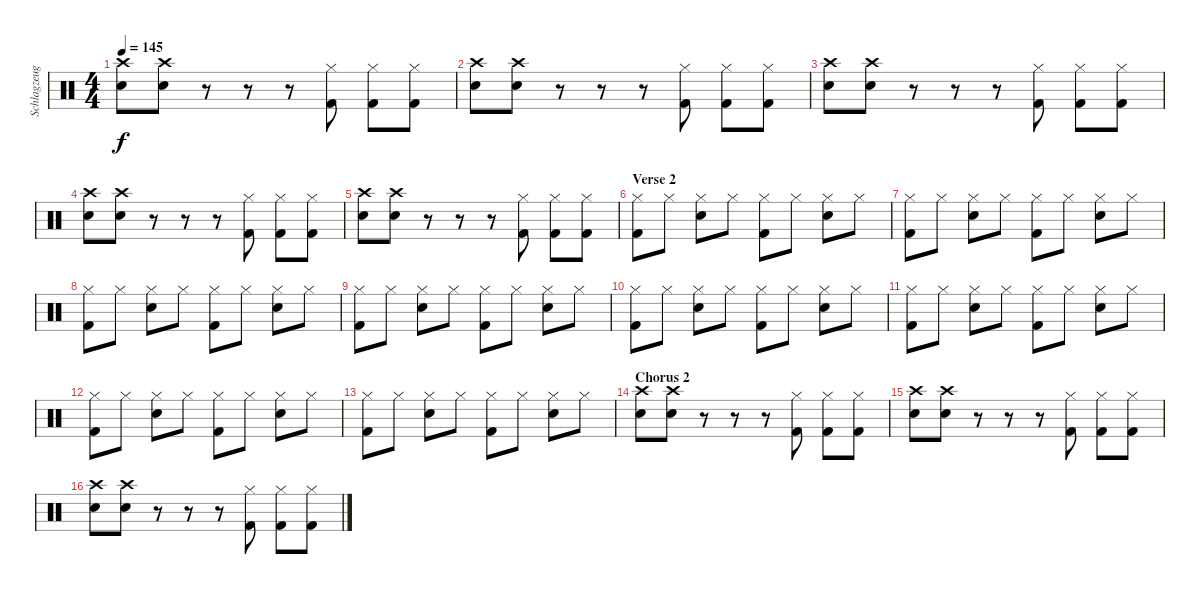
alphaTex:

\track ("Schlagzeug" "Schlagzeug") {instrument percussion}
\staff {score}
\articulation defaults
\ts (4 4)
\tempo 145
\clef neutral
\ks c
("Snare (hit) 2" "Crash high (hit)").8{dy f} ("Snare (hit) 2" "Crash high (hit)").8 r.8 r.8 r.8 ("Kick (hit) 2" "Hi-Hat (closed)").8 ("Kick (hit) 2" "Hi-Hat (closed)").8 ("Kick (hit) 2" "Hi-Hat (closed)").8 |
("Snare (hit) 2" "Crash high (hit)").8 ("Snare (hit) 2" "Crash high (hit)").8 r.8 r.8 r.8 ("Kick (hit) 2" "Hi-Hat (closed)").8 ("Kick (hit) 2" "Hi-Hat (closed)").8 ("Kick (hit) 2" "Hi-Hat (closed)").8 |
("Snare (hit) 2" "Crash high (hit)").8 ("Snare (hit) 2" "Crash high (hit)").8 r.8 r.8 r.8 ("Kick (hit) 2" "Hi-Hat (closed)").8 ("Kick (hit) 2" "Hi-Hat (closed)").8 ("Kick (hit) 2" "Hi-Hat (closed)").8 |
("Snare (hit) 2" "Crash high (hit)").8 ("Snare (hit) 2" "Crash high (hit)").8 r.8 r.8 r.8 ("Kick (hit) 2" "Hi-Hat (closed)").8 ("Kick (hit) 2" "Hi-Hat (closed)").8 ("Kick (hit) 2" "Hi-Hat (closed)").8 |
("Snare (hit) 2" "Crash high (hit)").8 ("Snare (hit) 2" "Crash high (hit)").8 r.8 r.8 r.8 ("Kick (hit) 2" "Hi-Hat (closed)").8 ("Kick (hit) 2" "Hi-Hat (closed)").8 ("Kick (hit) 2" "Hi-Hat (closed)").8 |
\section ("" "Verse 2")
("Kick (hit) 2" "Hi-Hat (closed)").8 "Hi-Hat (closed)".8 ("Snare (hit) 2" "Hi-Hat (closed)").8 "Hi-Hat (closed)".8 ("Kick (hit) 2" "Hi-Hat (closed)").8 "Hi-Hat (closed)".8 ("Snare (hit) 2" "Hi-Hat (closed)").8 "Hi-Hat (closed)".8 |
("Kick (hit) 2" "Hi-Hat (closed)").8 "Hi-Hat (closed)".8 ("Snare (hit) 2" "Hi-Hat (closed)").8 "Hi-Hat (closed)".8 ("Kick (hit) 2" "Hi-Hat (closed)").8 "Hi-Hat (closed)".8 ("Snare (hit) 2" "Hi-Hat (closed)").8 "Hi-Hat (closed)".8 |
("Kick (hit) 2" "Hi-Hat (closed)").8 "Hi-Hat (closed)".8 ("Snare (hit) 2" "Hi-Hat (closed)").8 "Hi-Hat (closed)".8 ("Kick (hit) 2" "Hi-Hat (closed)").8 "Hi-Hat (closed)".8 ("Snare (hit) 2" "Hi-Hat (closed)").8 "Hi-Hat (closed)".8 |
("Kick (hit) 2" "Hi-Hat (closed)").8 "Hi-Hat (closed)".8 ("Snare (hit) 2" "Hi-Hat (closed)").8 "Hi-Hat (closed)".8 ("Kick (hit) 2" "Hi-Hat (closed)").8 "Hi-Hat (closed)".8 ("Snare (hit) 2" "Hi-Hat (closed)").8 "Hi-Hat (closed)".8 |
("Kick (hit) 2" "Hi-Hat (closed)").8 "Hi-Hat (closed)".8 ("Snare (hit) 2" "Hi-Hat (closed)").8 "Hi-Hat (closed)".8 ("Kick (hit) 2" "Hi-Hat (closed)").8 "Hi-Hat (closed)".8 ("Snare (hit) 2" "Hi-Hat (closed)").8 "Hi-Hat (closed)".8 |
("Kick (hit) 2" "Hi-Hat (closed)").8 "Hi-Hat (closed)".8 ("Snare (hit) 2" "Hi-Hat (closed)").8 "Hi-Hat (closed)".8 ("Kick (hit) 2" "Hi-Hat (closed)").8 "Hi-Hat (closed)".8 ("Snare (hit) 2" "Hi-Hat (closed)").8 "Hi-Hat (closed)".8 |
("Kick (hit) 2" "Hi-Hat (closed)").8 "Hi-Hat (closed)".8 ("Snare (hit) 2" "Hi-Hat (closed)").8 "Hi-Hat (closed)".8 ("Kick (hit) 2" "Hi-Hat (closed)").8 "Hi-Hat (closed)".8 ("Snare (hit) 2" "Hi-Hat (closed)").8 "Hi-Hat (closed)".8 |
("Kick (hit) 2" "Hi-Hat (closed)").8 "Hi-Hat (closed)".8 ("Snare (hit) 2" "Hi-Hat (closed)").8 "Hi-Hat (closed)".8 ("Kick (hit) 2" "Hi-Hat (closed)").8 "Hi-Hat (closed)".8 ("Snare (hit) 2" "Hi-Hat (closed)").8 "Hi-Hat (closed)".8 |
\section ("" "Chorus 2")
("Snare (hit) 2" "Crash high (hit)").8 ("Snare (hit) 2" "Crash high (hit)").8 r.8 r.8 r.8 ("Kick (hit) 2" "Hi-Hat (closed)").8 ("Kick (hit) 2" "Hi-Hat (closed)").8 ("Kick (hit) 2" "Hi-Hat (closed)").8 |
("Snare (hit) 2" "Crash high (hit)").8 ("Snare (hit) 2" "Crash high (hit)").8 r.8 r.8 r.8 ("Kick (hit) 2" "Hi-Hat (closed)").8 ("Kick (hit) 2" "Hi-Hat (closed)").8 ("Kick (hit) 2" "Hi-Hat (closed)").8 |
("Snare (hit) 2" "Crash high (hit)").8 ("Snare (hit) 2" "Crash high (hit)").8 r.8 r.8 r.8 ("Kick (hit) 2" "Hi-Hat (closed)").8 ("Kick (hit) 2" "Hi-Hat (closed)").8 ("Kick (hit) 2" "Hi-Hat (closed)").8
